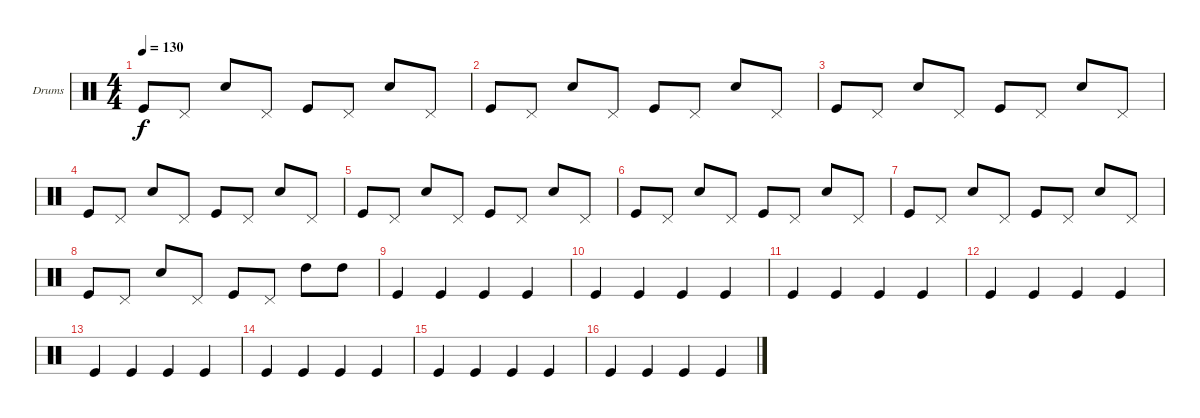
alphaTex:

\bracketExtendMode groupsimilarinstruments
\firstSystemTrackNameOrientation horizontal
\otherSystemsTrackNameOrientation horizontal
\track ("Drumkit" "Drums") {instrument percussion}
\staff {score}
\articulation defaults
\ts (4 4)
\tempo 130
\clef neutral
\ks c "Kick (hit)".8{dy f} "Pedal Hi-Hat (hit)".8 "Snare (hit) 2".8 "Pedal Hi-Hat (hit)".8 "Kick (hit)".8 "Pedal Hi-Hat (hit)".8 "Snare (hit) 2".8 "Pedal Hi-Hat (hit)".8
|
"Kick (hit)".8 "Pedal Hi-Hat (hit)".8 "Snare (hit) 2".8 "Pedal Hi-Hat (hit)".8 "Kick (hit)".8 "Pedal Hi-Hat (hit)".8 "Snare (hit) 2".8 "Pedal Hi-Hat (hit)".8 |
"Kick (hit)".8 "Pedal Hi-Hat (hit)".8 "Snare (hit) 2".8 "Pedal Hi-Hat (hit)".8 "Kick (hit)".8 "Pedal Hi-Hat (hit)".8 "Snare (hit) 2".8 "Pedal Hi-Hat (hit)".8 |
"Kick (hit)".8 "Pedal Hi-Hat (hit)".8 "Snare (hit) 2".8 "Pedal Hi-Hat (hit)".8 "Kick (hit)".8 "Pedal Hi-Hat (hit)".8 "Snare (hit) 2".8 "Pedal Hi-Hat (hit)".8 |
"Kick (hit)".8 "Pedal Hi-Hat (hit)".8 "Snare (hit) 2".8 "Pedal Hi-Hat (hit)".8 "Kick (hit)".8 "Pedal Hi-Hat (hit)".8 "Snare (hit) 2".8 "Pedal Hi-Hat (hit)".8 |
"Kick (hit)".8 "Pedal Hi-Hat (hit)".8 "Snare (hit) 2".8 "Pedal Hi-Hat (hit)".8 "Kick (hit)".8 "Pedal Hi-Hat (hit)".8 "Snare (hit) 2".8 "Pedal Hi-Hat (hit)".8 |
"Kick (hit)".8 "Pedal Hi-Hat (hit)".8 "Snare (hit) 2".8 "Pedal Hi-Hat (hit)".8 "Kick (hit)".8 "Pedal Hi-Hat (hit)".8 "Snare (hit) 2".8 "Pedal Hi-Hat (hit)".8 |
"Kick (hit)".8 "Pedal Hi-Hat (hit)".8 "Snare (hit) 2".8 "Pedal Hi-Hat (hit)".8 "Kick (hit)".8 "Pedal Hi-Hat (hit)".8 "High Tom (hit)".8 "High Tom (hit)".8 |
"Kick (hit)".4 "Kick (hit)".4 "Kick (hit)".4 "Kick (hit)".4 |
"Kick (hit)".4 "Kick (hit)".4 "Kick (hit)".4 "Kick (hit)".4 |
"Kick (hit)".4 "Kick (hit)".4 "Kick (hit)".4 "Kick (hit)".4 |
"Kick (hit)".4 "Kick (hit)".4 "Kick (hit)".4 "Kick (hit)".4 |
"Kick (hit)".4 "Kick (hit)".4 "Kick (hit)".4 "Kick (hit)".4 |
"Kick (hit)".4 "Kick (hit)".4 "Kick (hit)".4 "Kick (hit)".4 |
"Kick (hit)".4 "Kick (hit)".4 "Kick (hit)".4 "Kick (hit)".4 |
"Kick (hit)".4 "Kick (hit)".4 "Kick (hit)".4 "Kick (hit)".4
